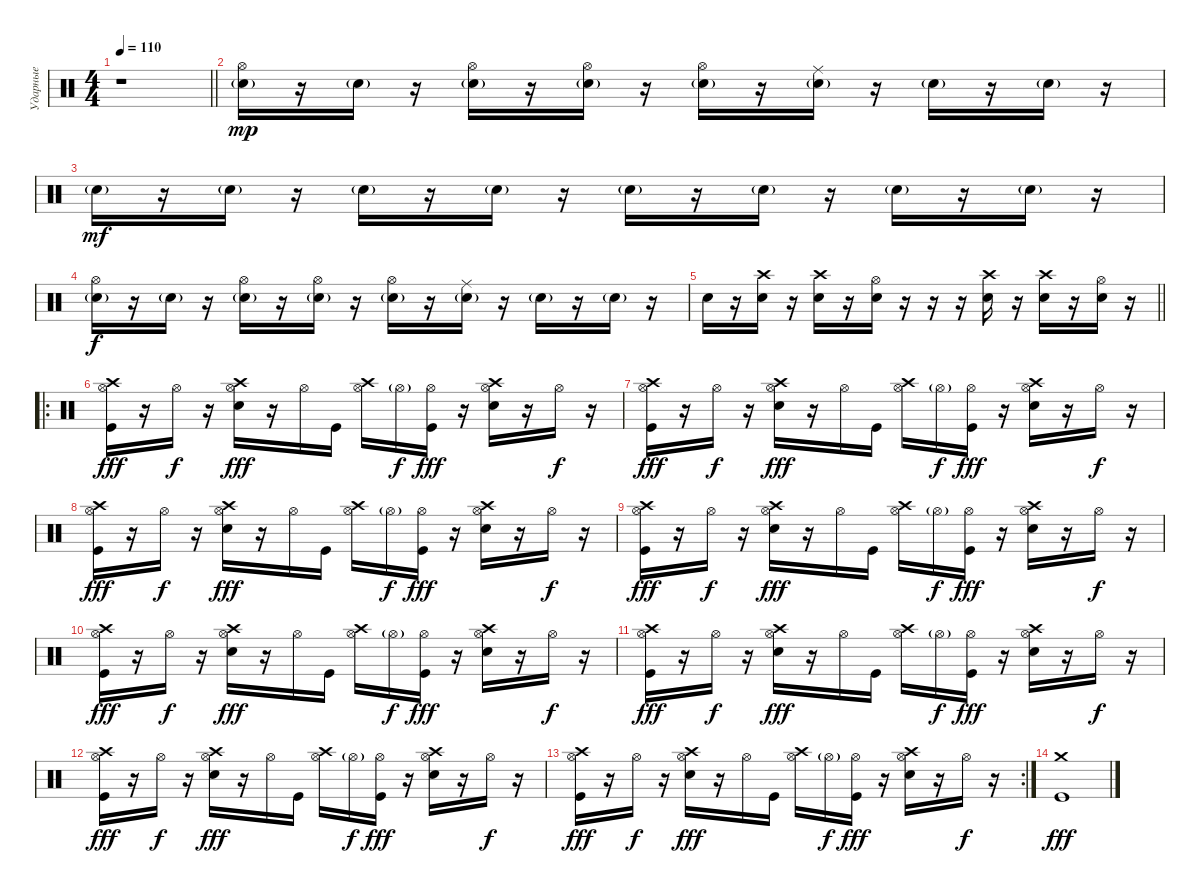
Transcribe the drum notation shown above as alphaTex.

\track ("Ударные" "Ударные") {instrument percussion}
\staff {score}
\articulation defaults
\ts (4 4)
\tempo 110
\clef neutral
\barLineRight lightlight
\ks c
r.1{dy f} |
("Electric Snare (hit)"{g} "Hi-Hat (open)").16{dy mp} r.16 "Electric Snare (hit)"{g}.16 r.16 ("Electric Snare (hit)"{g} "Hi-Hat (open)").16 r.16 ("Electric Snare (hit)"{g} "Hi-Hat (open)").16 r.16 ("Electric Snare (hit)"{g} "Hi-Hat (open)").16 r.16 ("Electric Snare (hit)"{g} "Ride (middle)").16 r.16 "Electric Snare (hit)"{g}.16 r.16 "Electric Snare (hit)"{g}.16 r.16 |
"Electric Snare (hit)"{g}.16{dy mf} r.16 "Electric Snare (hit)"{g}.16 r.16 "Electric Snare (hit)"{g}.16 r.16 "Electric Snare (hit)"{g}.16 r.16 "Electric Snare (hit)"{g}.16 r.16 "Electric Snare (hit)"{g}.16 r.16 "Electric Snare (hit)"{g}.16 r.16 "Electric Snare (hit)"{g}.16 r.16 |
("Electric Snare (hit)"{g} "Hi-Hat (open)").16{dy f} r.16 "Electric Snare (hit)"{g}.16 r.16 ("Electric Snare (hit)"{g} "Hi-Hat (open)").16 r.16 ("Electric Snare (hit)"{g} "Hi-Hat (open)").16 r.16 ("Electric Snare (hit)"{g} "Hi-Hat (open)").16 r.16 ("Electric Snare (hit)"{g} "Ride (middle)").16 r.16 "Electric Snare (hit)"{g}.16 r.16 "Electric Snare (hit)"{g}.16 r.16 |
\barLineRight lightlight "Electric Snare (hit)".16
r.16 ("Electric Snare (hit)" "Crash high (hit)").16 r.16 ("Electric Snare (hit)" "Crash high (hit)").16 r.16 ("Electric Snare (hit)" "Hi-Hat (open)").16 r.16 r.16 r.16 ("Electric Snare (hit)" "Crash high (hit)").16 r.16 ("Electric Snare (hit)" "Crash high (hit)").16 r.16 ("Electric Snare (hit)" "Hi-Hat (open)").16 r.16 |
\ro
("Hi-Hat (open)" "Kick (hit)" "Crash high (hit)").16{dy fff} r.16 "Hi-Hat (open)".16{dy f} r.16 ("Hi-Hat (open)" "Electric Snare (hit)" "Crash high (hit)").16{dy fff} r.16 "Hi-Hat (open)".16 "Kick (hit)".16 ("Hi-Hat (open)" "Crash high (hit)").16 "Hi-Hat (open)"{g}.16{dy f} ("Hi-Hat (open)" "Kick (hit)").16{dy fff} r.16 ("Hi-Hat (open)" "Electric Snare (hit)" "Crash high (hit)").16 r.16 "Hi-Hat (open)".16{dy f} r.16 |
("Hi-Hat (open)" "Kick (hit)" "Crash high (hit)").16{dy fff} r.16 "Hi-Hat (open)".16{dy f} r.16 ("Hi-Hat (open)" "Electric Snare (hit)" "Crash high (hit)").16{dy fff} r.16 "Hi-Hat (open)".16 "Kick (hit)".16 ("Hi-Hat (open)" "Crash high (hit)").16 "Hi-Hat (open)"{g}.16{dy f} ("Hi-Hat (open)" "Kick (hit)").16{dy fff} r.16 ("Hi-Hat (open)" "Electric Snare (hit)" "Crash high (hit)").16 r.16 "Hi-Hat (open)".16{dy f} r.16 |
("Hi-Hat (open)" "Kick (hit)" "Crash high (hit)").16{dy fff} r.16 "Hi-Hat (open)".16{dy f} r.16 ("Hi-Hat (open)" "Electric Snare (hit)" "Crash high (hit)").16{dy fff} r.16 "Hi-Hat (open)".16 "Kick (hit)".16 ("Hi-Hat (open)" "Crash high (hit)").16 "Hi-Hat (open)"{g}.16{dy f} ("Hi-Hat (open)" "Kick (hit)").16{dy fff} r.16 ("Hi-Hat (open)" "Electric Snare (hit)" "Crash high (hit)").16 r.16 "Hi-Hat (open)".16{dy f} r.16 |
("Hi-Hat (open)" "Kick (hit)" "Crash high (hit)").16{dy fff} r.16 "Hi-Hat (open)".16{dy f} r.16 ("Hi-Hat (open)" "Electric Snare (hit)" "Crash high (hit)").16{dy fff} r.16 "Hi-Hat (open)".16 "Kick (hit)".16 ("Hi-Hat (open)" "Crash high (hit)").16 "Hi-Hat (open)"{g}.16{dy f} ("Hi-Hat (open)" "Kick (hit)").16{dy fff} r.16 ("Hi-Hat (open)" "Electric Snare (hit)" "Crash high (hit)").16 r.16 "Hi-Hat (open)".16{dy f} r.16 |
("Hi-Hat (open)" "Kick (hit)" "Crash high (hit)").16{dy fff} r.16 "Hi-Hat (open)".16{dy f} r.16 ("Hi-Hat (open)" "Electric Snare (hit)" "Crash high (hit)").16{dy fff} r.16 "Hi-Hat (open)".16 "Kick (hit)".16 ("Hi-Hat (open)" "Crash high (hit)").16 "Hi-Hat (open)"{g}.16{dy f} ("Hi-Hat (open)" "Kick (hit)").16{dy fff} r.16 ("Hi-Hat (open)" "Electric Snare (hit)" "Crash high (hit)").16 r.16 "Hi-Hat (open)".16{dy f} r.16 |
("Hi-Hat (open)" "Kick (hit)" "Crash high (hit)").16{dy fff} r.16 "Hi-Hat (open)".16{dy f} r.16 ("Hi-Hat (open)" "Electric Snare (hit)" "Crash high (hit)").16{dy fff} r.16 "Hi-Hat (open)".16 "Kick (hit)".16 ("Hi-Hat (open)" "Crash high (hit)").16 "Hi-Hat (open)"{g}.16{dy f} ("Hi-Hat (open)" "Kick (hit)").16{dy fff} r.16 ("Hi-Hat (open)" "Electric Snare (hit)" "Crash high (hit)").16 r.16 "Hi-Hat (open)".16{dy f} r.16 |
("Hi-Hat (open)" "Kick (hit)" "Crash high (hit)").16{dy fff} r.16 "Hi-Hat (open)".16{dy f} r.16 ("Hi-Hat (open)" "Electric Snare (hit)" "Crash high (hit)").16{dy fff} r.16 "Hi-Hat (open)".16 "Kick (hit)".16 ("Hi-Hat (open)" "Crash high (hit)").16 "Hi-Hat (open)"{g}.16{dy f} ("Hi-Hat (open)" "Kick (hit)").16{dy fff} r.16 ("Hi-Hat (open)" "Electric Snare (hit)" "Crash high (hit)").16 r.16 "Hi-Hat (open)".16{dy f} r.16 |
\rc 2
("Hi-Hat (open)" "Kick (hit)" "Crash high (hit)").16{dy fff} r.16 "Hi-Hat (open)".16{dy f} r.16 ("Hi-Hat (open)" "Electric Snare (hit)" "Crash high (hit)").16{dy fff} r.16 "Hi-Hat (open)".16 "Kick (hit)".16 ("Hi-Hat (open)" "Crash high (hit)").16 "Hi-Hat (open)"{g}.16{dy f} ("Hi-Hat (open)" "Kick (hit)").16{dy fff} r.16 ("Hi-Hat (open)" "Electric Snare (hit)" "Crash high (hit)").16 r.16 "Hi-Hat (open)".16{dy f} r.16 |
("Crash medium (hit)" "Kick (hit)").1{dy fff}
